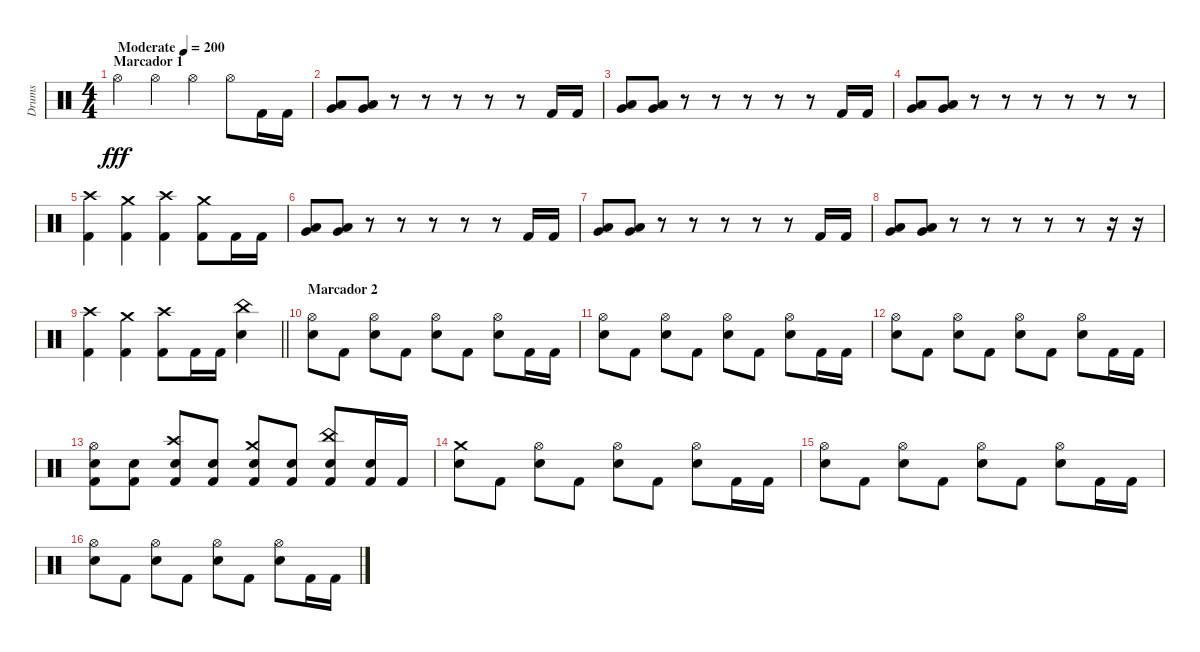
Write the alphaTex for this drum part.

\track ("Drums" "Drums") {instrument percussion}
\staff {score}
\articulation defaults
\ts (4 4)
\section ("" "Marcador 1")
\tempo (200 "Moderate")
\clef neutral
\ks c "Hi-Hat (open)".4{dy fff} "Hi-Hat (open)".4 "Hi-Hat (open)".4 "Hi-Hat (open)".8 "Kick (hit) 2".16 "Kick (hit) 2".16
|
("Low Tom (hit)" "Very Low Tom (hit)").8 ("Low Tom (hit)" "Very Low Tom (hit)").8 r.8 r.8 r.8 r.8 r.8 "Kick (hit) 2".16 "Kick (hit) 2".16 |
("Low Tom (hit)" "Very Low Tom (hit)").8 ("Low Tom (hit)" "Very Low Tom (hit)").8 r.8 r.8 r.8 r.8 r.8 "Kick (hit) 2".16 "Kick (hit) 2".16 |
("Low Tom (hit)" "Very Low Tom (hit)").8 ("Low Tom (hit)" "Very Low Tom (hit)").8 r.8 r.8 r.8 r.8 r.8 r.8 |
("Crash high (hit)" "Kick (hit) 2").4 ("Crash medium (hit)" "Kick (hit) 2").4 ("Crash high (hit)" "Kick (hit) 2").4 ("Crash medium (hit)" "Kick (hit) 2").8 "Kick (hit) 2".16 "Kick (hit) 2".16 |
("Low Tom (hit)" "Very Low Tom (hit)").8 ("Low Tom (hit)" "Very Low Tom (hit)").8 r.8 r.8 r.8 r.8 r.8 "Kick (hit) 2".16 "Kick (hit) 2".16 |
("Low Tom (hit)" "Very Low Tom (hit)").8 ("Low Tom (hit)" "Very Low Tom (hit)").8 r.8 r.8 r.8 r.8 r.8 "Kick (hit) 2".16 "Kick (hit) 2".16 |
("Low Tom (hit)" "Very Low Tom (hit)").8 ("Low Tom (hit)" "Very Low Tom (hit)").8 r.8 r.8 r.8 r.8 r.8 r.16 r.16 |
\barLineRight lightlight
("Crash high (hit)" "Kick (hit) 2").4 ("Crash medium (hit)" "Kick (hit) 2").4 ("Crash high (hit)" "Kick (hit) 2").8 "Kick (hit) 2".16 "Kick (hit) 2".16 ("China (hit)" "Electric Snare (hit)").4 |
\section ("" "Marcador 2")
("Hi-Hat (open)" "Electric Snare (hit)").8 "Kick (hit) 2".8 ("Hi-Hat (open)" "Electric Snare (hit)").8 "Kick (hit) 2".8 ("Hi-Hat (open)" "Electric Snare (hit)").8 "Kick (hit) 2".8 ("Hi-Hat (open)" "Electric Snare (hit)").8 "Kick (hit) 2".16 "Kick (hit) 2".16 |
("Hi-Hat (open)" "Electric Snare (hit)").8 "Kick (hit) 2".8 ("Hi-Hat (open)" "Electric Snare (hit)").8 "Kick (hit) 2".8 ("Hi-Hat (open)" "Electric Snare (hit)").8 "Kick (hit) 2".8 ("Hi-Hat (open)" "Electric Snare (hit)").8 "Kick (hit) 2".16 "Kick (hit) 2".16 |
("Hi-Hat (open)" "Electric Snare (hit)").8 "Kick (hit) 2".8 ("Hi-Hat (open)" "Electric Snare (hit)").8 "Kick (hit) 2".8 ("Hi-Hat (open)" "Electric Snare (hit)").8 "Kick (hit) 2".8 ("Hi-Hat (open)" "Electric Snare (hit)").8 "Kick (hit) 2".16 "Kick (hit) 2".16 |
("Hi-Hat (open)" "Electric Snare (hit)" "Kick (hit) 2").8 ("Electric Snare (hit)" "Kick (hit) 2").8 ("Crash high (hit)" "Electric Snare (hit)" "Kick (hit) 2").8 ("Electric Snare (hit)" "Kick (hit) 2").8 ("Crash medium (hit)" "Electric Snare (hit)" "Kick (hit) 2").8 ("Electric Snare (hit)" "Kick (hit) 2").8 ("China (hit)" "Electric Snare (hit)" "Kick (hit) 2").8 ("Electric Snare (hit)" "Kick (hit) 2").16 "Kick (hit) 2".16 |
("Crash medium (hit)" "Electric Snare (hit)").8 "Kick (hit) 2".8 ("Hi-Hat (open)" "Electric Snare (hit)").8 "Kick (hit) 2".8 ("Hi-Hat (open)" "Electric Snare (hit)").8 "Kick (hit) 2".8 ("Hi-Hat (open)" "Electric Snare (hit)").8 "Kick (hit) 2".16 "Kick (hit) 2".16 |
("Hi-Hat (open)" "Electric Snare (hit)").8 "Kick (hit) 2".8 ("Hi-Hat (open)" "Electric Snare (hit)").8 "Kick (hit) 2".8 ("Hi-Hat (open)" "Electric Snare (hit)").8 "Kick (hit) 2".8 ("Hi-Hat (open)" "Electric Snare (hit)").8 "Kick (hit) 2".16 "Kick (hit) 2".16 |
("Hi-Hat (open)" "Electric Snare (hit)").8 "Kick (hit) 2".8 ("Hi-Hat (open)" "Electric Snare (hit)").8 "Kick (hit) 2".8 ("Hi-Hat (open)" "Electric Snare (hit)").8 "Kick (hit) 2".8 ("Hi-Hat (open)" "Electric Snare (hit)").8 "Kick (hit) 2".16 "Kick (hit) 2".16
